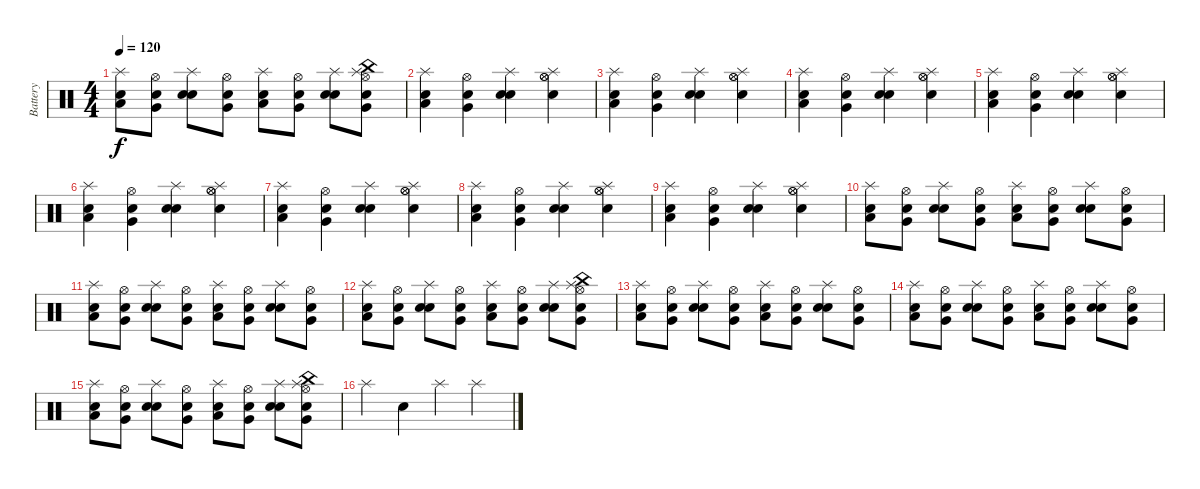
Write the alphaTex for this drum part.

\track ("Battery" "Battery") {instrument percussion}
\staff {score}
\articulation defaults
\ts (4 4)
\tempo 120
\clef neutral
\ks c
("Snare (hit) 2" "Low Floor Tom (hit)" "Splash (hit)").8{dy f} ("Snare (hit) 2" "Very Low Tom (hit)" "Hi-Hat (open)").8 ("Snare (hit) 2" "Electric Snare (hit)" "Splash (hit)").8 ("Snare (hit) 2" "Very Low Tom (hit)" "Hi-Hat (open)").8 ("Snare (hit) 2" "Low Floor Tom (hit)" "Splash (hit)").8 ("Snare (hit) 2" "Very Low Tom (hit)" "Hi-Hat (open)").8 ("Snare (hit) 2" "Electric Snare (hit)" "Splash (hit)").8 ("Snare (hit) 2" "Very Low Tom (hit)" "Splash (hit)" "Hi-Hat (open)" "China (hit)").8 |
("Snare (hit) 2" "Low Floor Tom (hit)" "Splash (hit)").4 ("Snare (hit) 2" "Very Low Tom (hit)" "Hi-Hat (open)").4 ("Snare (hit) 2" "Electric Snare (hit)" "Splash (hit)").4 ("Snare (hit) 2" "Hi-Hat (open)" "Splash (hit)" "Hi-Hat (open)").4 |
("Snare (hit) 2" "Low Floor Tom (hit)" "Splash (hit)").4 ("Snare (hit) 2" "Very Low Tom (hit)" "Hi-Hat (open)").4 ("Snare (hit) 2" "Electric Snare (hit)" "Splash (hit)").4 ("Snare (hit) 2" "Hi-Hat (open)" "Splash (hit)" "Hi-Hat (open)").4 |
("Snare (hit) 2" "Low Floor Tom (hit)" "Splash (hit)").4 ("Snare (hit) 2" "Very Low Tom (hit)" "Hi-Hat (open)").4 ("Snare (hit) 2" "Electric Snare (hit)" "Splash (hit)").4 ("Snare (hit) 2" "Hi-Hat (open)" "Splash (hit)" "Hi-Hat (open)").4 |
("Snare (hit) 2" "Low Floor Tom (hit)" "Splash (hit)").4 ("Snare (hit) 2" "Very Low Tom (hit)" "Hi-Hat (open)").4 ("Snare (hit) 2" "Electric Snare (hit)" "Splash (hit)").4 ("Snare (hit) 2" "Hi-Hat (open)" "Splash (hit)" "Hi-Hat (open)").4 |
("Snare (hit) 2" "Low Floor Tom (hit)" "Splash (hit)").4 ("Snare (hit) 2" "Very Low Tom (hit)" "Hi-Hat (open)").4 ("Snare (hit) 2" "Electric Snare (hit)" "Splash (hit)").4 ("Snare (hit) 2" "Hi-Hat (open)" "Splash (hit)" "Hi-Hat (open)").4 |
("Snare (hit) 2" "Low Floor Tom (hit)" "Splash (hit)").4 ("Snare (hit) 2" "Very Low Tom (hit)" "Hi-Hat (open)").4 ("Snare (hit) 2" "Electric Snare (hit)" "Splash (hit)").4 ("Snare (hit) 2" "Hi-Hat (open)" "Splash (hit)" "Hi-Hat (open)").4 |
("Snare (hit) 2" "Low Floor Tom (hit)" "Splash (hit)").4 ("Snare (hit) 2" "Very Low Tom (hit)" "Hi-Hat (open)").4 ("Snare (hit) 2" "Electric Snare (hit)" "Splash (hit)").4 ("Snare (hit) 2" "Hi-Hat (open)" "Splash (hit)" "Hi-Hat (open)").4 |
("Snare (hit) 2" "Low Floor Tom (hit)" "Splash (hit)").4 ("Snare (hit) 2" "Very Low Tom (hit)" "Hi-Hat (open)").4 ("Snare (hit) 2" "Electric Snare (hit)" "Splash (hit)").4 ("Snare (hit) 2" "Hi-Hat (open)" "Splash (hit)" "Hi-Hat (open)").4 |
("Snare (hit) 2" "Low Floor Tom (hit)" "Splash (hit)").8 ("Snare (hit) 2" "Very Low Tom (hit)" "Hi-Hat (open)").8 ("Snare (hit) 2" "Electric Snare (hit)" "Splash (hit)").8 ("Snare (hit) 2" "Very Low Tom (hit)" "Hi-Hat (open)").8 ("Snare (hit) 2" "Low Floor Tom (hit)" "Splash (hit)").8 ("Snare (hit) 2" "Very Low Tom (hit)" "Hi-Hat (open)").8 ("Snare (hit) 2" "Electric Snare (hit)" "Splash (hit)").8 ("Snare (hit) 2" "Very Low Tom (hit)" "Hi-Hat (open)").8 |
("Snare (hit) 2" "Low Floor Tom (hit)" "Splash (hit)").8 ("Snare (hit) 2" "Very Low Tom (hit)" "Hi-Hat (open)").8 ("Snare (hit) 2" "Electric Snare (hit)" "Splash (hit)").8 ("Snare (hit) 2" "Very Low Tom (hit)" "Hi-Hat (open)").8 ("Snare (hit) 2" "Low Floor Tom (hit)" "Splash (hit)").8 ("Snare (hit) 2" "Very Low Tom (hit)" "Hi-Hat (open)").8 ("Snare (hit) 2" "Electric Snare (hit)" "Splash (hit)").8 ("Snare (hit) 2" "Very Low Tom (hit)" "Hi-Hat (open)").8 |
("Snare (hit) 2" "Low Floor Tom (hit)" "Splash (hit)").8 ("Snare (hit) 2" "Very Low Tom (hit)" "Hi-Hat (open)").8 ("Snare (hit) 2" "Electric Snare (hit)" "Splash (hit)").8 ("Snare (hit) 2" "Very Low Tom (hit)" "Hi-Hat (open)").8 ("Snare (hit) 2" "Low Floor Tom (hit)" "Splash (hit)").8 ("Snare (hit) 2" "Very Low Tom (hit)" "Hi-Hat (open)").8 ("Snare (hit) 2" "Electric Snare (hit)" "Splash (hit)").8 ("Snare (hit) 2" "Very Low Tom (hit)" "Splash (hit)" "Hi-Hat (open)" "China (hit)").8 |
("Snare (hit) 2" "Low Floor Tom (hit)" "Splash (hit)").8 ("Snare (hit) 2" "Very Low Tom (hit)" "Hi-Hat (open)").8 ("Snare (hit) 2" "Electric Snare (hit)" "Splash (hit)").8 ("Snare (hit) 2" "Very Low Tom (hit)" "Hi-Hat (open)").8 ("Snare (hit) 2" "Low Floor Tom (hit)" "Splash (hit)").8 ("Snare (hit) 2" "Very Low Tom (hit)" "Hi-Hat (open)").8 ("Snare (hit) 2" "Electric Snare (hit)" "Splash (hit)").8 ("Snare (hit) 2" "Very Low Tom (hit)" "Hi-Hat (open)").8 |
("Snare (hit) 2" "Low Floor Tom (hit)" "Splash (hit)").8 ("Snare (hit) 2" "Very Low Tom (hit)" "Hi-Hat (open)").8 ("Snare (hit) 2" "Electric Snare (hit)" "Splash (hit)").8 ("Snare (hit) 2" "Very Low Tom (hit)" "Hi-Hat (open)").8 ("Snare (hit) 2" "Low Floor Tom (hit)" "Splash (hit)").8 ("Snare (hit) 2" "Very Low Tom (hit)" "Hi-Hat (open)").8 ("Snare (hit) 2" "Electric Snare (hit)" "Splash (hit)").8 ("Snare (hit) 2" "Very Low Tom (hit)" "Hi-Hat (open)").8 |
("Snare (hit) 2" "Low Floor Tom (hit)" "Splash (hit)").8 ("Snare (hit) 2" "Very Low Tom (hit)" "Hi-Hat (open)").8 ("Snare (hit) 2" "Electric Snare (hit)" "Splash (hit)").8 ("Snare (hit) 2" "Very Low Tom (hit)" "Hi-Hat (open)").8 ("Snare (hit) 2" "Low Floor Tom (hit)" "Splash (hit)").8 ("Snare (hit) 2" "Very Low Tom (hit)" "Hi-Hat (open)").8 ("Snare (hit) 2" "Electric Snare (hit)" "Splash (hit)").8 ("Snare (hit) 2" "Very Low Tom (hit)" "Splash (hit)" "Hi-Hat (open)" "China (hit)").8 |
"Splash (hit)".4 "Snare (hit)".4 "Splash (hit)".4 "Splash (hit)".4
